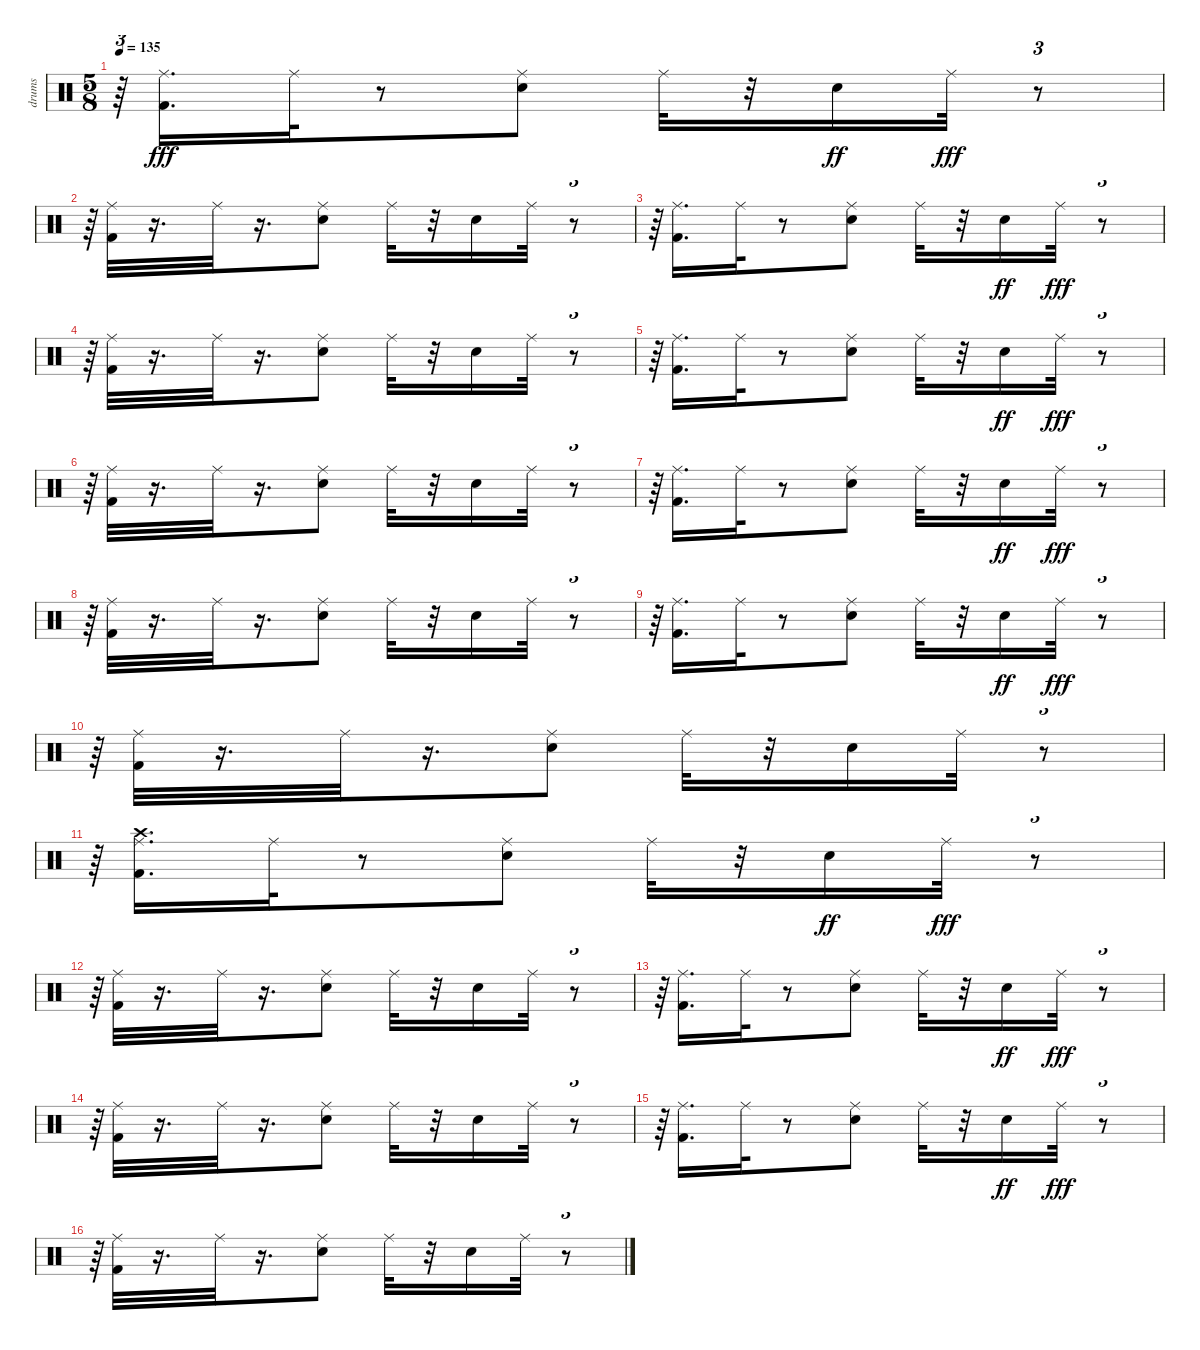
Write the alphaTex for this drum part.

\track ("drums               " "drums     ") {instrument percussion}
\staff {score}
\articulation defaults
\ts (5 8)
\tempo 135
\clef neutral
\ks c
r.64{tu (3 2) dy fff} ("Kick (hit) 2" "Ride (middle)").16{d} "Ride (middle)".32 r.8 ("Snare (hit) 2" "Ride (middle)").8 "Ride (middle)".32 r.32 "Snare (hit) 2".16{dy ff} "Ride (middle)".32{dy fff} r.8{tu (3 2)} |
r.64{tu (3 2)} ("Kick (hit) 2" "Ride (middle)").32 r.16{d} "Ride (middle)".32 r.16{d} ("Snare (hit) 2" "Ride (middle)").8 "Ride (middle)".32 r.32 "Snare (hit) 2".16 "Ride (middle)".32 r.8{tu (3 2)} |
r.64{tu (3 2)} ("Kick (hit) 2" "Ride (middle)").16{d} "Ride (middle)".32 r.8 ("Snare (hit) 2" "Ride (middle)").8 "Ride (middle)".32 r.32 "Snare (hit) 2".16{dy ff} "Ride (middle)".32{dy fff} r.8{tu (3 2)} |
r.64{tu (3 2)} ("Kick (hit) 2" "Ride (middle)").32 r.16{d} "Ride (middle)".32 r.16{d} ("Snare (hit) 2" "Ride (middle)").8 "Ride (middle)".32 r.32 "Snare (hit) 2".16 "Ride (middle)".32 r.8{tu (3 2)} |
r.64{tu (3 2)} ("Kick (hit) 2" "Ride (middle)").16{d} "Ride (middle)".32 r.8 ("Snare (hit) 2" "Ride (middle)").8 "Ride (middle)".32 r.32 "Snare (hit) 2".16{dy ff} "Ride (middle)".32{dy fff} r.8{tu (3 2)} |
r.64{tu (3 2)} ("Kick (hit) 2" "Ride (middle)").32 r.16{d} "Ride (middle)".32 r.16{d} ("Snare (hit) 2" "Ride (middle)").8 "Ride (middle)".32 r.32 "Snare (hit) 2".16 "Ride (middle)".32 r.8{tu (3 2)} |
r.64{tu (3 2)} ("Kick (hit) 2" "Ride (middle)").16{d} "Ride (middle)".32 r.8 ("Snare (hit) 2" "Ride (middle)").8 "Ride (middle)".32 r.32 "Snare (hit) 2".16{dy ff} "Ride (middle)".32{dy fff} r.8{tu (3 2)} |
r.64{tu (3 2)} ("Kick (hit) 2" "Ride (middle)").32 r.16{d} "Ride (middle)".32 r.16{d} ("Snare (hit) 2" "Ride (middle)").8 "Ride (middle)".32 r.32 "Snare (hit) 2".16 "Ride (middle)".32 r.8{tu (3 2)} |
r.64{tu (3 2)} ("Kick (hit) 2" "Ride (middle)").16{d} "Ride (middle)".32 r.8 ("Snare (hit) 2" "Ride (middle)").8 "Ride (middle)".32 r.32 "Snare (hit) 2".16{dy ff} "Ride (middle)".32{dy fff} r.8{tu (3 2)} |
r.64{tu (3 2)} ("Kick (hit) 2" "Ride (middle)").32 r.16{d} "Ride (middle)".32 r.16{d} ("Snare (hit) 2" "Ride (middle)").8 "Ride (middle)".32 r.32 "Snare (hit) 2".16 "Ride (middle)".32 r.8{tu (3 2)} |
r.64{tu (3 2)} ("Kick (hit) 2" "Crash high (hit)" "Ride (middle)").16{d} "Ride (middle)".32 r.8 ("Snare (hit) 2" "Ride (middle)").8 "Ride (middle)".32 r.32 "Snare (hit) 2".16{dy ff} "Ride (middle)".32{dy fff} r.8{tu (3 2)} |
r.64{tu (3 2)} ("Kick (hit) 2" "Ride (middle)").32 r.16{d} "Ride (middle)".32 r.16{d} ("Snare (hit) 2" "Ride (middle)").8 "Ride (middle)".32 r.32 "Snare (hit) 2".16 "Ride (middle)".32 r.8{tu (3 2)} |
r.64{tu (3 2)} ("Kick (hit) 2" "Ride (middle)").16{d} "Ride (middle)".32 r.8 ("Snare (hit) 2" "Ride (middle)").8 "Ride (middle)".32 r.32 "Snare (hit) 2".16{dy ff} "Ride (middle)".32{dy fff} r.8{tu (3 2)} |
r.64{tu (3 2)} ("Kick (hit) 2" "Ride (middle)").32 r.16{d} "Ride (middle)".32 r.16{d} ("Snare (hit) 2" "Ride (middle)").8 "Ride (middle)".32 r.32 "Snare (hit) 2".16 "Ride (middle)".32 r.8{tu (3 2)} |
r.64{tu (3 2)} ("Kick (hit) 2" "Ride (middle)").16{d} "Ride (middle)".32 r.8 ("Snare (hit) 2" "Ride (middle)").8 "Ride (middle)".32 r.32 "Snare (hit) 2".16{dy ff} "Ride (middle)".32{dy fff} r.8{tu (3 2)} |
r.64{tu (3 2)} ("Kick (hit) 2" "Ride (middle)").32 r.16{d} "Ride (middle)".32 r.16{d} ("Snare (hit) 2" "Ride (middle)").8 "Ride (middle)".32 r.32 "Snare (hit) 2".16 "Ride (middle)".32 r.8{tu (3 2)}
